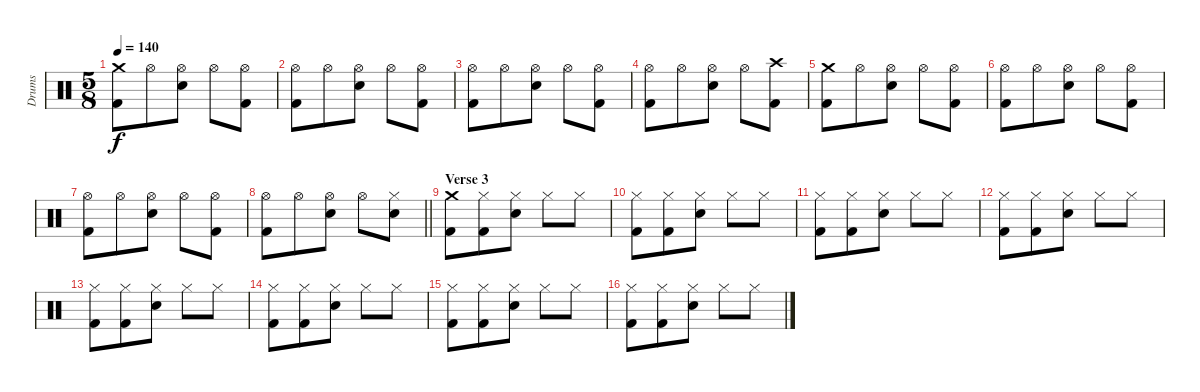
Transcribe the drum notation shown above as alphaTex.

\track ("Drums" "Drums") {instrument percussion}
\staff {score}
\articulation defaults
\ts (5 8)
\tempo 140
\clef neutral
\ks c
("Crash medium (hit)" "Kick (hit) 2").8{dy f} "Hi-Hat (open)".8 ("Hi-Hat (open)" "Electric Snare (hit)").8 "Hi-Hat (open)".8 ("Hi-Hat (open)" "Kick (hit) 2").8 |
("Hi-Hat (open)" "Kick (hit) 2").8 "Hi-Hat (open)".8 ("Hi-Hat (open)" "Electric Snare (hit)").8 "Hi-Hat (open)".8 ("Hi-Hat (open)" "Kick (hit) 2").8 |
("Hi-Hat (open)" "Kick (hit) 2").8 "Hi-Hat (open)".8 ("Hi-Hat (open)" "Electric Snare (hit)").8 "Hi-Hat (open)".8 ("Hi-Hat (open)" "Kick (hit) 2").8 |
("Hi-Hat (open)" "Kick (hit) 2").8 "Hi-Hat (open)".8 ("Hi-Hat (open)" "Electric Snare (hit)").8 "Hi-Hat (open)".8 ("Crash high (hit)" "Kick (hit) 2").8 |
("Crash medium (hit)" "Kick (hit) 2").8 "Hi-Hat (open)".8 ("Hi-Hat (open)" "Electric Snare (hit)").8 "Hi-Hat (open)".8 ("Hi-Hat (open)" "Kick (hit) 2").8 |
("Hi-Hat (open)" "Kick (hit) 2").8 "Hi-Hat (open)".8 ("Hi-Hat (open)" "Electric Snare (hit)").8 "Hi-Hat (open)".8 ("Hi-Hat (open)" "Kick (hit) 2").8 |
("Hi-Hat (open)" "Kick (hit) 2").8 "Hi-Hat (open)".8 ("Hi-Hat (open)" "Electric Snare (hit)").8 "Hi-Hat (open)".8 ("Hi-Hat (open)" "Kick (hit) 2").8 |
\barLineRight lightlight
("Hi-Hat (open)" "Kick (hit) 2").8 "Hi-Hat (open)".8 ("Hi-Hat (open)" "Electric Snare (hit)").8 "Hi-Hat (open)".8 ("Hi-Hat (closed)" "Electric Snare (hit)").8 |
\section ("" "Verse 3")
("Crash medium (hit)" "Kick (hit) 2").8 ("Hi-Hat (closed)" "Kick (hit) 2").8 ("Hi-Hat (closed)" "Electric Snare (hit)").8 "Hi-Hat (closed)".8 "Hi-Hat (closed)".8 |
("Hi-Hat (closed)" "Kick (hit) 2").8 ("Hi-Hat (closed)" "Kick (hit) 2").8 ("Hi-Hat (closed)" "Electric Snare (hit)").8 "Hi-Hat (closed)".8 "Hi-Hat (closed)".8 |
("Hi-Hat (closed)" "Kick (hit) 2").8 ("Hi-Hat (closed)" "Kick (hit) 2").8 ("Hi-Hat (closed)" "Electric Snare (hit)").8 "Hi-Hat (closed)".8 "Hi-Hat (closed)".8 |
("Hi-Hat (closed)" "Kick (hit) 2").8 ("Hi-Hat (closed)" "Kick (hit) 2").8 ("Hi-Hat (closed)" "Electric Snare (hit)").8 "Hi-Hat (closed)".8 "Hi-Hat (closed)".8 |
("Hi-Hat (closed)" "Kick (hit) 2").8 ("Hi-Hat (closed)" "Kick (hit) 2").8 ("Hi-Hat (closed)" "Electric Snare (hit)").8 "Hi-Hat (closed)".8 "Hi-Hat (closed)".8 |
("Hi-Hat (closed)" "Kick (hit) 2").8 ("Hi-Hat (closed)" "Kick (hit) 2").8 ("Hi-Hat (closed)" "Electric Snare (hit)").8 "Hi-Hat (closed)".8 "Hi-Hat (closed)".8 |
("Hi-Hat (closed)" "Kick (hit) 2").8 ("Hi-Hat (closed)" "Kick (hit) 2").8 ("Hi-Hat (closed)" "Electric Snare (hit)").8 "Hi-Hat (closed)".8 "Hi-Hat (closed)".8 |
("Hi-Hat (closed)" "Kick (hit) 2").8 ("Hi-Hat (closed)" "Kick (hit) 2").8 ("Hi-Hat (closed)" "Electric Snare (hit)").8 "Hi-Hat (closed)".8 "Hi-Hat (closed)".8
